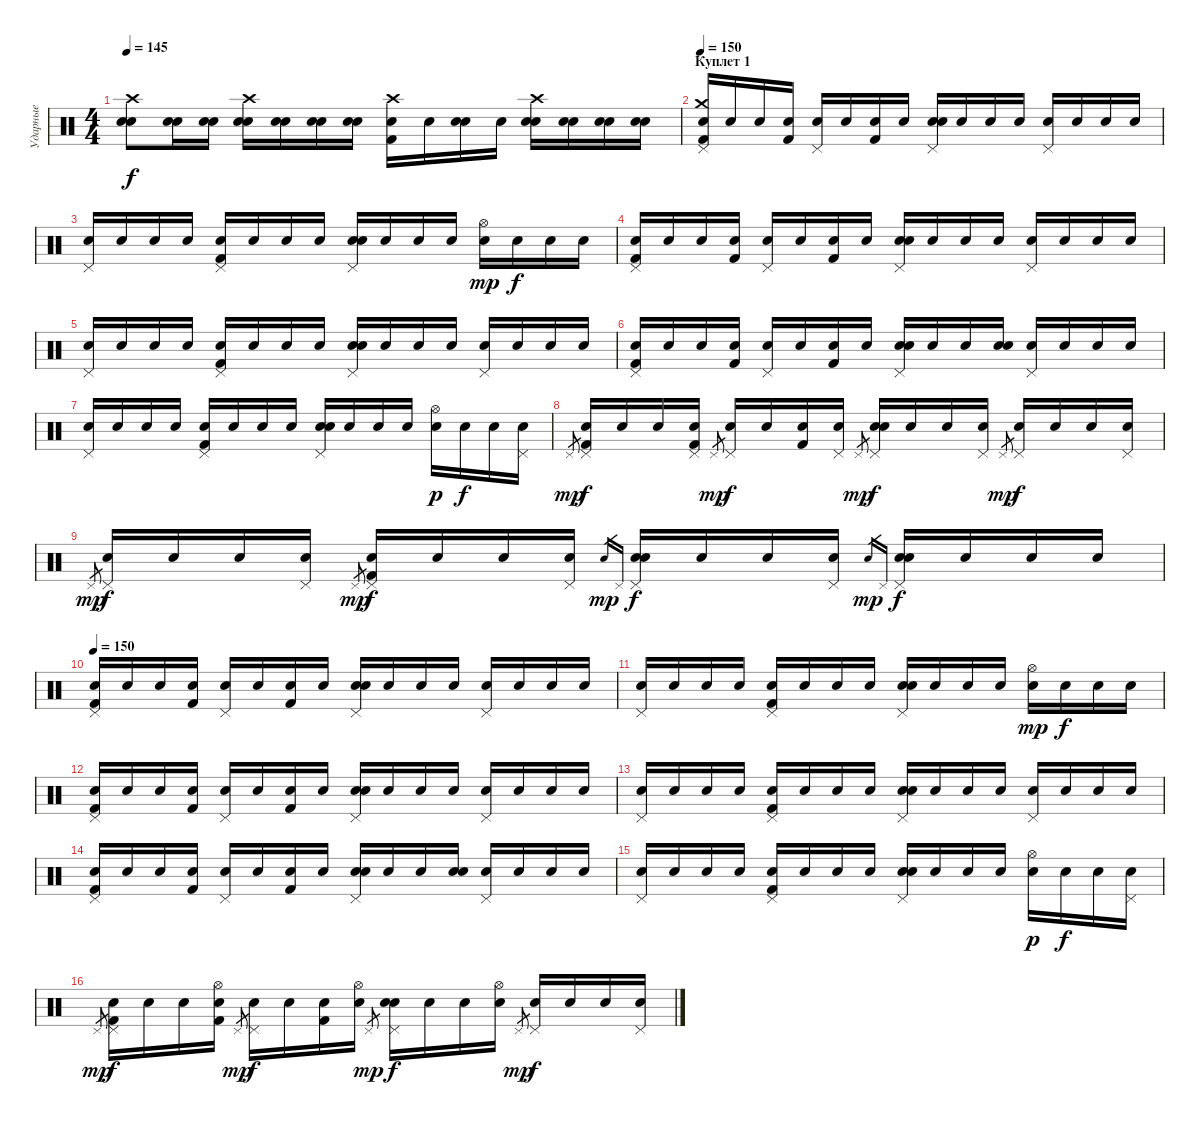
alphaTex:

\track ("Ударные" "Ударные") {instrument percussion}
\staff {score}
\articulation defaults
\ts (4 4)
\tempo 145
\clef neutral
\ks c
("Crash high (hit)" "Snare (hit) 2" "Snare (hit)"{x}).8{dy f} ("Snare (hit) 2" "Snare (hit)"{x}).16 ("Snare (hit) 2" "Snare (hit)"{x}).16 ("Crash high (hit)" "Snare (hit) 2" "Snare (hit)"{x}).16 ("Snare (hit) 2" "Snare (hit)"{x}).16 ("Snare (hit) 2" "Snare (hit)"{x}).16 ("Snare (hit) 2" "Snare (hit)"{x}).16 ("Crash high (hit)" "Kick (hit) 2" "Snare (hit)"{x}).16 "Snare (hit)"{x}.16 ("Snare (hit) 2" "Snare (hit)"{x}).16 "Snare (hit)"{x}.16 ("Crash high (hit)" "Snare (hit) 2" "Snare (hit)"{x}).16 ("Snare (hit) 2" "Snare (hit)"{x}).16 ("Snare (hit) 2" "Snare (hit)"{x}).16 ("Snare (hit) 2" "Snare (hit)"{x}).16 |
\section ("" "Куплет 1")
\tempo 150
("Crash medium (hit)" "Kick (hit) 2" "Pedal Hi-Hat (hit)" "Snare (hit)"{x}).16 "Snare (hit)"{x}.16 "Snare (hit)"{x}.16 ("Kick (hit) 2" "Snare (hit)"{x}).16 ("Pedal Hi-Hat (hit)" "Snare (hit)"{x}).16 "Snare (hit)"{x}.16 ("Kick (hit) 2" "Snare (hit)"{x}).16 "Snare (hit)"{x}.16 ("Snare (hit) 2" "Pedal Hi-Hat (hit)" "Snare (hit)"{x}).16 "Snare (hit)"{x}.16 "Snare (hit)"{x}.16 "Snare (hit)"{x}.16 ("Pedal Hi-Hat (hit)" "Snare (hit)"{x}).16 "Snare (hit)"{x}.16 "Snare (hit)"{x}.16 "Snare (hit)"{x}.16 |
("Pedal Hi-Hat (hit)" "Snare (hit)"{x}).16 "Snare (hit)"{x}.16 "Snare (hit)"{x}.16 "Snare (hit)"{x}.16 ("Kick (hit) 2" "Pedal Hi-Hat (hit)" "Snare (hit)"{x}).16 "Snare (hit)"{x}.16 "Snare (hit)"{x}.16 "Snare (hit)"{x}.16 ("Snare (hit) 2" "Pedal Hi-Hat (hit)" "Snare (hit)"{x}).16 "Snare (hit)"{x}.16 "Snare (hit)"{x}.16 "Snare (hit)"{x}.16 ("Hi-Hat (open)" "Snare (hit)"{x}).16{dy mp} "Snare (hit)"{x}.16{dy f} "Snare (hit)"{x}.16 "Snare (hit)"{x}.16 |
("Kick (hit) 2" "Pedal Hi-Hat (hit)" "Snare (hit)"{x}).16 "Snare (hit)"{x}.16 "Snare (hit)"{x}.16 ("Kick (hit) 2" "Snare (hit)"{x}).16 ("Pedal Hi-Hat (hit)" "Snare (hit)"{x}).16 "Snare (hit)"{x}.16 ("Kick (hit) 2" "Snare (hit)"{x}).16 "Snare (hit)"{x}.16 ("Snare (hit) 2" "Pedal Hi-Hat (hit)" "Snare (hit)"{x}).16 "Snare (hit)"{x}.16 "Snare (hit)"{x}.16 "Snare (hit)"{x}.16 ("Pedal Hi-Hat (hit)" "Snare (hit)"{x}).16 "Snare (hit)"{x}.16 "Snare (hit)"{x}.16 "Snare (hit)"{x}.16 |
("Pedal Hi-Hat (hit)" "Snare (hit)"{x}).16 "Snare (hit)"{x}.16 "Snare (hit)"{x}.16 "Snare (hit)"{x}.16 ("Kick (hit) 2" "Pedal Hi-Hat (hit)" "Snare (hit)"{x}).16 "Snare (hit)"{x}.16 "Snare (hit)"{x}.16 "Snare (hit)"{x}.16 ("Snare (hit) 2" "Pedal Hi-Hat (hit)" "Snare (hit)"{x}).16 "Snare (hit)"{x}.16 "Snare (hit)"{x}.16 "Snare (hit)"{x}.16 ("Pedal Hi-Hat (hit)" "Snare (hit)"{x}).16 "Snare (hit)"{x}.16 "Snare (hit)"{x}.16 "Snare (hit)"{x}.16 |
("Kick (hit) 2" "Pedal Hi-Hat (hit)" "Snare (hit)"{x}).16 "Snare (hit)"{x}.16 "Snare (hit)"{x}.16 ("Kick (hit) 2" "Snare (hit)"{x}).16 ("Pedal Hi-Hat (hit)" "Snare (hit)"{x}).16 "Snare (hit)"{x}.16 ("Kick (hit) 2" "Snare (hit)"{x}).16 "Snare (hit)"{x}.16 ("Snare (hit) 2" "Pedal Hi-Hat (hit)" "Snare (hit)"{x}).16 "Snare (hit)"{x}.16 "Snare (hit)"{x}.16 ("Snare (hit) 2" "Snare (hit)"{x}).16 ("Pedal Hi-Hat (hit)" "Snare (hit)"{x}).16 "Snare (hit)"{x}.16 "Snare (hit)"{x}.16 "Snare (hit)"{x}.16 |
("Pedal Hi-Hat (hit)" "Snare (hit)"{x}).16 "Snare (hit)"{x}.16 "Snare (hit)"{x}.16 "Snare (hit)"{x}.16 ("Kick (hit) 2" "Pedal Hi-Hat (hit)" "Snare (hit)"{x}).16 "Snare (hit)"{x}.16 "Snare (hit)"{x}.16 "Snare (hit)"{x}.16 ("Snare (hit) 2" "Pedal Hi-Hat (hit)" "Snare (hit)"{x}).16 "Snare (hit)"{x}.16 "Snare (hit)"{x}.16 "Snare (hit)"{x}.16 ("Hi-Hat (open)" "Snare (hit)"{x}).16{dy p} "Snare (hit)"{x}.16{dy f} "Snare (hit)"{x}.16 ("Pedal Hi-Hat (hit)" "Snare (hit)"{x}).16 |
"Pedal Hi-Hat (hit)".8{gr dy mp} ("Kick (hit) 2" "Pedal Hi-Hat (hit)" "Snare (hit)"{x}).16{dy f} "Snare (hit)"{x}.16 "Snare (hit)"{x}.16 ("Kick (hit) 2" "Pedal Hi-Hat (hit)" "Snare (hit)"{x}).16 "Pedal Hi-Hat (hit)".8{gr dy mp} ("Pedal Hi-Hat (hit)" "Snare (hit)"{x}).16{dy f} "Snare (hit)"{x}.16 ("Kick (hit) 2" "Snare (hit)"{x}).16 ("Pedal Hi-Hat (hit)" "Snare (hit)"{x}).16 "Pedal Hi-Hat (hit)".8{gr dy mp} ("Snare (hit) 2" "Pedal Hi-Hat (hit)" "Snare (hit)"{x}).16{dy f} "Snare (hit)"{x}.16 "Snare (hit)"{x}.16 ("Pedal Hi-Hat (hit)" "Snare (hit)"{x}).16 "Pedal Hi-Hat (hit)".8{gr dy mp} ("Pedal Hi-Hat (hit)" "Snare (hit)"{x}).16{dy f} "Snare (hit)"{x}.16 "Snare (hit)"{x}.16 ("Pedal Hi-Hat (hit)" "Snare (hit)"{x}).16 |
"Pedal Hi-Hat (hit)".8{gr dy mp} ("Pedal Hi-Hat (hit)" "Snare (hit)"{x}).16{dy f} "Snare (hit)"{x}.16 "Snare (hit)"{x}.16 ("Pedal Hi-Hat (hit)" "Snare (hit)"{x}).16 "Pedal Hi-Hat (hit)".8{gr dy mp} ("Kick (hit) 2" "Pedal Hi-Hat (hit)" "Snare (hit)"{x}).16{dy f} "Snare (hit)"{x}.16 "Snare (hit)"{x}.16 ("Pedal Hi-Hat (hit)" "Snare (hit)"{x}).16 "Snare (hit) 2".16{gr dy mp} "Pedal Hi-Hat (hit)".16{gr} ("Snare (hit) 2" "Pedal Hi-Hat (hit)" "Snare (hit)"{x}).16{dy f} "Snare (hit)"{x}.16 "Snare (hit)"{x}.16 ("Pedal Hi-Hat (hit)" "Snare (hit)"{x}).16 "Snare (hit) 2".16{gr dy mp} "Pedal Hi-Hat (hit)".16{gr} ("Snare (hit) 2" "Pedal Hi-Hat (hit)" "Snare (hit)"{x}).16{dy f} "Snare (hit)"{x}.16 "Snare (hit)"{x}.16 "Snare (hit)"{x}.16 |
\tempo 150
("Kick (hit) 2" "Pedal Hi-Hat (hit)" "Snare (hit)"{x}).16 "Snare (hit)"{x}.16 "Snare (hit)"{x}.16 ("Kick (hit) 2" "Snare (hit)"{x}).16 ("Pedal Hi-Hat (hit)" "Snare (hit)"{x}).16 "Snare (hit)"{x}.16 ("Kick (hit) 2" "Snare (hit)"{x}).16 "Snare (hit)"{x}.16 ("Snare (hit) 2" "Pedal Hi-Hat (hit)" "Snare (hit)"{x}).16 "Snare (hit)"{x}.16 "Snare (hit)"{x}.16 "Snare (hit)"{x}.16 ("Pedal Hi-Hat (hit)" "Snare (hit)"{x}).16 "Snare (hit)"{x}.16 "Snare (hit)"{x}.16 "Snare (hit)"{x}.16 |
("Pedal Hi-Hat (hit)" "Snare (hit)"{x}).16 "Snare (hit)"{x}.16 "Snare (hit)"{x}.16 "Snare (hit)"{x}.16 ("Kick (hit) 2" "Pedal Hi-Hat (hit)" "Snare (hit)"{x}).16 "Snare (hit)"{x}.16 "Snare (hit)"{x}.16 "Snare (hit)"{x}.16 ("Snare (hit) 2" "Pedal Hi-Hat (hit)" "Snare (hit)"{x}).16 "Snare (hit)"{x}.16 "Snare (hit)"{x}.16 "Snare (hit)"{x}.16 ("Hi-Hat (open)" "Snare (hit)"{x}).16{dy mp} "Snare (hit)"{x}.16{dy f} "Snare (hit)"{x}.16 "Snare (hit)"{x}.16 |
("Kick (hit) 2" "Pedal Hi-Hat (hit)" "Snare (hit)"{x}).16 "Snare (hit)"{x}.16 "Snare (hit)"{x}.16 ("Kick (hit) 2" "Snare (hit)"{x}).16 ("Pedal Hi-Hat (hit)" "Snare (hit)"{x}).16 "Snare (hit)"{x}.16 ("Kick (hit) 2" "Snare (hit)"{x}).16 "Snare (hit)"{x}.16 ("Snare (hit) 2" "Pedal Hi-Hat (hit)" "Snare (hit)"{x}).16 "Snare (hit)"{x}.16 "Snare (hit)"{x}.16 "Snare (hit)"{x}.16 ("Pedal Hi-Hat (hit)" "Snare (hit)"{x}).16 "Snare (hit)"{x}.16 "Snare (hit)"{x}.16 "Snare (hit)"{x}.16 |
("Pedal Hi-Hat (hit)" "Snare (hit)"{x}).16 "Snare (hit)"{x}.16 "Snare (hit)"{x}.16 "Snare (hit)"{x}.16 ("Kick (hit) 2" "Pedal Hi-Hat (hit)" "Snare (hit)"{x}).16 "Snare (hit)"{x}.16 "Snare (hit)"{x}.16 "Snare (hit)"{x}.16 ("Snare (hit) 2" "Pedal Hi-Hat (hit)" "Snare (hit)"{x}).16 "Snare (hit)"{x}.16 "Snare (hit)"{x}.16 "Snare (hit)"{x}.16 ("Pedal Hi-Hat (hit)" "Snare (hit)"{x}).16 "Snare (hit)"{x}.16 "Snare (hit)"{x}.16 "Snare (hit)"{x}.16 |
("Kick (hit) 2" "Pedal Hi-Hat (hit)" "Snare (hit)"{x}).16 "Snare (hit)"{x}.16 "Snare (hit)"{x}.16 ("Kick (hit) 2" "Snare (hit)"{x}).16 ("Pedal Hi-Hat (hit)" "Snare (hit)"{x}).16 "Snare (hit)"{x}.16 ("Kick (hit) 2" "Snare (hit)"{x}).16 "Snare (hit)"{x}.16 ("Snare (hit) 2" "Pedal Hi-Hat (hit)" "Snare (hit)"{x}).16 "Snare (hit)"{x}.16 "Snare (hit)"{x}.16 ("Snare (hit) 2" "Snare (hit)"{x}).16 ("Pedal Hi-Hat (hit)" "Snare (hit)"{x}).16 "Snare (hit)"{x}.16 "Snare (hit)"{x}.16 "Snare (hit)"{x}.16 |
("Pedal Hi-Hat (hit)" "Snare (hit)"{x}).16 "Snare (hit)"{x}.16 "Snare (hit)"{x}.16 "Snare (hit)"{x}.16 ("Kick (hit) 2" "Pedal Hi-Hat (hit)" "Snare (hit)"{x}).16 "Snare (hit)"{x}.16 "Snare (hit)"{x}.16 "Snare (hit)"{x}.16 ("Snare (hit) 2" "Pedal Hi-Hat (hit)" "Snare (hit)"{x}).16 "Snare (hit)"{x}.16 "Snare (hit)"{x}.16 "Snare (hit)"{x}.16 ("Hi-Hat (open)" "Snare (hit)"{x}).16{dy p} "Snare (hit)"{x}.16{dy f} "Snare (hit)"{x}.16 ("Pedal Hi-Hat (hit)" "Snare (hit)"{x}).16 |
"Pedal Hi-Hat (hit)".8{gr dy mp} ("Kick (hit) 2" "Pedal Hi-Hat (hit)" "Snare (hit)"{x}).16{dy f} "Snare (hit)"{x}.16 "Snare (hit)"{x}.16 ("Kick (hit) 2" "Hi-Hat (open)" "Snare (hit)"{x}).16 "Pedal Hi-Hat (hit)".8{gr dy mp} ("Pedal Hi-Hat (hit)" "Snare (hit)"{x}).16{dy f} "Snare (hit)"{x}.16 ("Kick (hit) 2" "Snare (hit)"{x}).16 ("Hi-Hat (open)" "Snare (hit)"{x}).16 "Pedal Hi-Hat (hit)".8{gr dy mp} ("Snare (hit) 2" "Pedal Hi-Hat (hit)" "Snare (hit)"{x}).16{dy f} "Snare (hit)"{x}.16 "Snare (hit)"{x}.16 ("Hi-Hat (open)" "Snare (hit)"{x}).16 "Pedal Hi-Hat (hit)".8{gr dy mp} ("Pedal Hi-Hat (hit)" "Snare (hit)"{x}).16{dy f} "Snare (hit)"{x}.16 "Snare (hit)"{x}.16 ("Pedal Hi-Hat (hit)" "Snare (hit)"{x}).16
